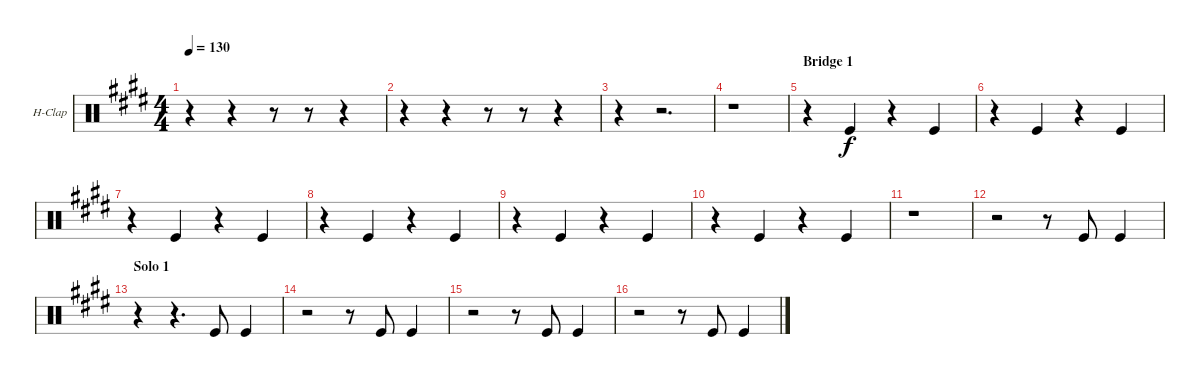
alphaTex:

\defaultSystemsLayout 4
\bracketExtendMode groupsimilarinstruments
\firstSystemTrackNameOrientation horizontal
\otherSystemsTrackNameOrientation horizontal
\chordDiagramsInScore
\track ("Hand Clap" "H-Clap") {instrument percussion}
\staff {score}
\articulation defaults
\ts (4 4)
\tempo 130
\clef neutral
\scale
0.31941
\ks e
r.4{dy f} r.4 r.8 r.8 r.4 |
\scale
0.31941 r.4 r.4 r.8 r.8 r.4 |
\scale
0.218673 r.4 r.2{d} |
\scale
0.142506 r.1 |
\section ("" "Bridge 1")
\scale
0.25 r.4 "Kick (hit)".4 r.4 "Kick (hit)".4 |
\scale
0.25 r.4 "Kick (hit)".4 r.4 "Kick (hit)".4 |
\scale
0.25 r.4 "Kick (hit)".4 r.4 "Kick (hit)".4 |
\scale
0.25 r.4 "Kick (hit)".4 r.4 "Kick (hit)".4 |
\scale
0.289855 r.4 "Kick (hit)".4 r.4 "Kick (hit)".4 |
\scale
0.289855 r.4 "Kick (hit)".4 r.4 "Kick (hit)".4 |
\scale
0.140097 r.1 |
\scale
0.280193 r.2 r.8 "Kick (hit)".8 "Kick (hit)".4 |
\section ("" "Solo 1")
\scale
0.254818 r.4 r.4{d} "Kick (hit)".8 "Kick (hit)".4 |
\scale
0.248394 r.2 r.8 "Kick (hit)".8 "Kick (hit)".4 |
\scale
0.248394 r.2 r.8 "Kick (hit)".8 "Kick (hit)".4 |
\scale
0.248394 r.2 r.8 "Kick (hit)".8 "Kick (hit)".4
